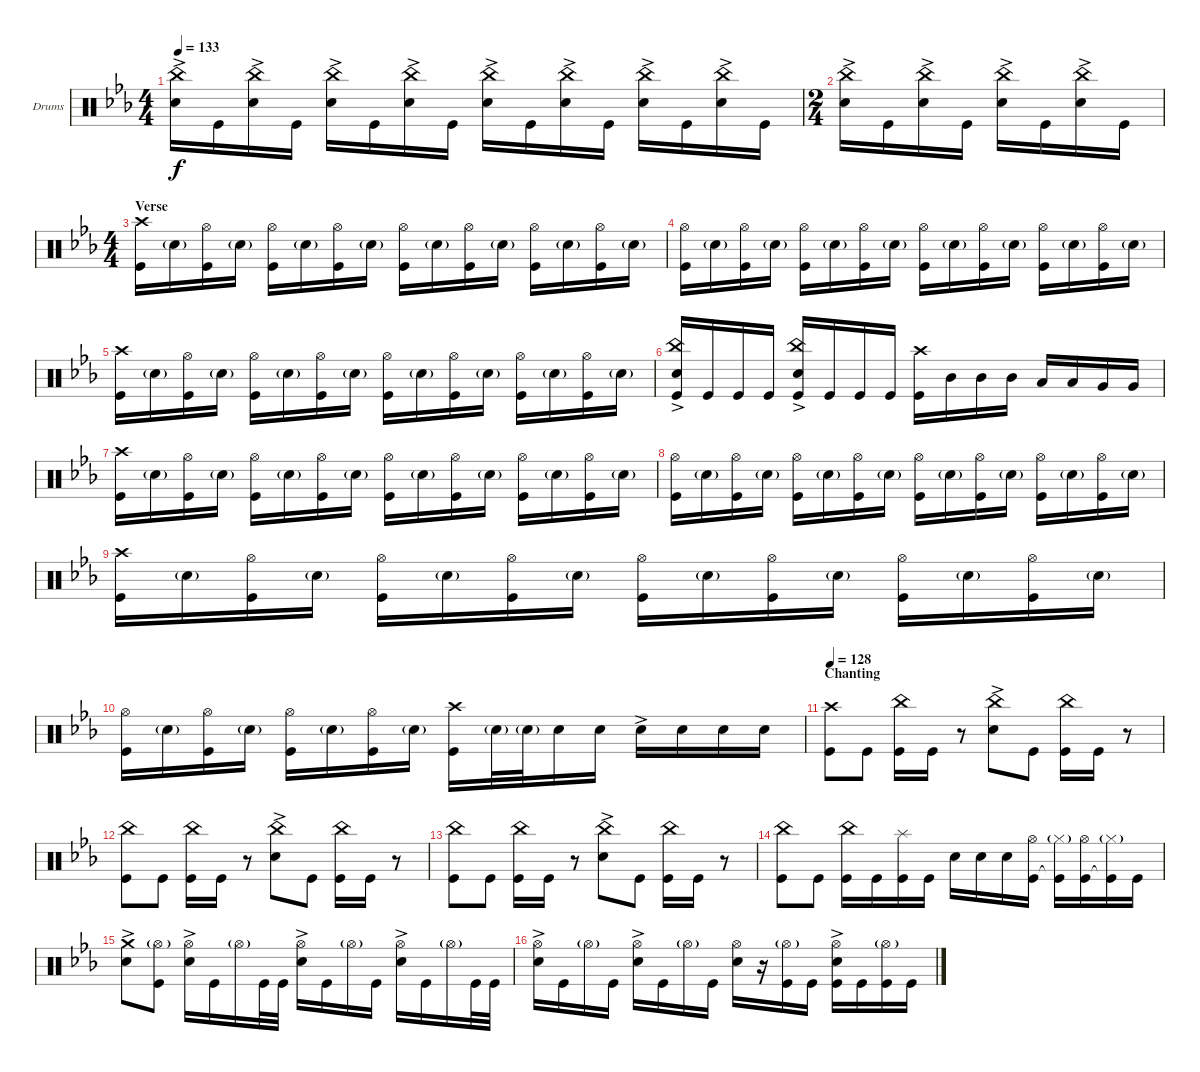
\bracketExtendMode groupsimilarinstruments
\firstSystemTrackNameOrientation horizontal
\otherSystemsTrackNameOrientation horizontal
\track ("Drumkit" "Drums") {instrument percussion}
\staff {score}
\articulation defaults
\ts (4 4)
\tempo 133
\clef neutral
\ks cminor
("Snare (hit) 2"{ac} "China (hit)").16{dy f} "Kick (hit)".16 ("Snare (hit) 2"{ac} "China (hit)").16 "Kick (hit)".16 ("Snare (hit) 2"{ac} "China (hit)").16 "Kick (hit)".16 ("Snare (hit) 2"{ac} "China (hit)").16 "Kick (hit)".16 ("Snare (hit) 2"{ac} "China (hit)").16 "Kick (hit)".16 ("Snare (hit) 2"{ac} "China (hit)").16 "Kick (hit)".16 ("Snare (hit) 2"{ac} "China (hit)").16 "Kick (hit)".16 ("Snare (hit) 2"{ac} "China (hit)").16 "Kick (hit)".16 |
\ts (2 4)
("Snare (hit) 2"{ac} "China (hit)").16 "Kick (hit)".16 ("Snare (hit) 2"{ac} "China (hit)").16 "Kick (hit)".16 ("Snare (hit) 2"{ac} "China (hit)").16 "Kick (hit)".16 ("Snare (hit) 2"{ac} "China (hit)").16 "Kick (hit)".16 |
\ts (4 4)
\section ("" "Verse")
("Kick (hit)" "Crash high (hit)").16 "Snare (hit) 2"{g}.16 ("Kick (hit)" "Hi-Hat (open)").16 "Snare (hit) 2"{g}.16 ("Kick (hit)" "Hi-Hat (open)").16 "Snare (hit) 2"{g}.16 ("Kick (hit)" "Hi-Hat (open)").16 "Snare (hit) 2"{g}.16 ("Kick (hit)" "Hi-Hat (open)").16 "Snare (hit) 2"{g}.16 ("Kick (hit)" "Hi-Hat (open)").16 "Snare (hit) 2"{g}.16 ("Kick (hit)" "Hi-Hat (open)").16 "Snare (hit) 2"{g}.16 ("Kick (hit)" "Hi-Hat (open)").16 "Snare (hit) 2"{g}.16 |
("Kick (hit)" "Hi-Hat (open)").16 "Snare (hit) 2"{g}.16 ("Kick (hit)" "Hi-Hat (open)").16 "Snare (hit) 2"{g}.16 ("Kick (hit)" "Hi-Hat (open)").16 "Snare (hit) 2"{g}.16 ("Kick (hit)" "Hi-Hat (open)").16 "Snare (hit) 2"{g}.16 ("Kick (hit)" "Hi-Hat (open)").16 "Snare (hit) 2"{g}.16 ("Kick (hit)" "Hi-Hat (open)").16 "Snare (hit) 2"{g}.16 ("Kick (hit)" "Hi-Hat (open)").16 "Snare (hit) 2"{g}.16 ("Kick (hit)" "Hi-Hat (open)").16 "Snare (hit) 2"{g}.16 |
("Kick (hit)" "Crash high (hit)").16 "Snare (hit) 2"{g}.16 ("Kick (hit)" "Hi-Hat (open)").16 "Snare (hit) 2"{g}.16 ("Kick (hit)" "Hi-Hat (open)").16 "Snare (hit) 2"{g}.16 ("Kick (hit)" "Hi-Hat (open)").16 "Snare (hit) 2"{g}.16 ("Kick (hit)" "Hi-Hat (open)").16 "Snare (hit) 2"{g}.16 ("Kick (hit)" "Hi-Hat (open)").16 "Snare (hit) 2"{g}.16 ("Kick (hit)" "Hi-Hat (open)").16 "Snare (hit) 2"{g}.16 ("Kick (hit)" "Hi-Hat (open)").16 "Snare (hit) 2"{g}.16 |
("Kick (hit)" "Snare (hit) 2"{ac} "China (hit)").16 "Kick (hit)".16 "Kick (hit)".16 "Kick (hit)".16 ("Kick (hit)" "Snare (hit) 2"{ac} "China (hit)").16 "Kick (hit)".16 "Kick (hit)".16 "Kick (hit)".16 ("Kick (hit)" "Crash high (hit)").16 "Mid Tom (hit)".16 "Mid Tom (hit)".16 "Mid Tom (hit)".16 "Low Tom (hit)".16 "Low Tom (hit)".16 "Very Low Tom (hit)".16 "Very Low Tom (hit)".16 |
("Kick (hit)" "Crash high (hit)").16 "Snare (hit) 2"{g}.16 ("Kick (hit)" "Hi-Hat (open)").16 "Snare (hit) 2"{g}.16 ("Kick (hit)" "Hi-Hat (open)").16 "Snare (hit) 2"{g}.16 ("Kick (hit)" "Hi-Hat (open)").16 "Snare (hit) 2"{g}.16 ("Kick (hit)" "Hi-Hat (open)").16 "Snare (hit) 2"{g}.16 ("Kick (hit)" "Hi-Hat (open)").16 "Snare (hit) 2"{g}.16 ("Kick (hit)" "Hi-Hat (open)").16 "Snare (hit) 2"{g}.16 ("Kick (hit)" "Hi-Hat (open)").16 "Snare (hit) 2"{g}.16 |
("Kick (hit)" "Hi-Hat (open)").16 "Snare (hit) 2"{g}.16 ("Kick (hit)" "Hi-Hat (open)").16 "Snare (hit) 2"{g}.16 ("Kick (hit)" "Hi-Hat (open)").16 "Snare (hit) 2"{g}.16 ("Kick (hit)" "Hi-Hat (open)").16 "Snare (hit) 2"{g}.16 ("Kick (hit)" "Hi-Hat (open)").16 "Snare (hit) 2"{g}.16 ("Kick (hit)" "Hi-Hat (open)").16 "Snare (hit) 2"{g}.16 ("Kick (hit)" "Hi-Hat (open)").16 "Snare (hit) 2"{g}.16 ("Kick (hit)" "Hi-Hat (open)").16 "Snare (hit) 2"{g}.16 |
("Kick (hit)" "Crash high (hit)").16 "Snare (hit) 2"{g}.16 ("Kick (hit)" "Hi-Hat (open)").16 "Snare (hit) 2"{g}.16 ("Kick (hit)" "Hi-Hat (open)").16 "Snare (hit) 2"{g}.16 ("Kick (hit)" "Hi-Hat (open)").16 "Snare (hit) 2"{g}.16 ("Kick (hit)" "Hi-Hat (open)").16 "Snare (hit) 2"{g}.16 ("Kick (hit)" "Hi-Hat (open)").16 "Snare (hit) 2"{g}.16 ("Kick (hit)" "Hi-Hat (open)").16 "Snare (hit) 2"{g}.16 ("Kick (hit)" "Hi-Hat (open)").16 "Snare (hit) 2"{g}.16 |
("Kick (hit)" "Hi-Hat (open)").16 "Snare (hit) 2"{g}.16 ("Kick (hit)" "Hi-Hat (open)").16 "Snare (hit) 2"{g}.16 ("Kick (hit)" "Hi-Hat (open)").16 "Snare (hit) 2"{g}.16 ("Kick (hit)" "Hi-Hat (open)").16 "Snare (hit) 2"{g}.16 ("Kick (hit)" "Crash high (hit)").16 "Snare (hit) 2"{g}.32 "Snare (hit) 2"{g}.32 "Snare (hit) 2".16 "Snare (hit) 2".16 "Snare (hit) 2"{ac}.16 "Snare (hit) 2".16 "Snare (hit) 2".16 "Snare (hit) 2".16 |
\section ("" "Chanting")
\tempo 128
("Kick (hit)" "Crash high (hit)").8 "Kick (hit)".8 ("Kick (hit)" "China (hit)").16 "Kick (hit)".16 r.8 ("Snare (hit) 2"{ac} "China (hit)").8 "Kick (hit)".8 ("Kick (hit)" "China (hit)").16 "Kick (hit)".16 r.8 |
("Kick (hit)" "China (hit)").8 "Kick (hit)".8 ("Kick (hit)" "China (hit)").16 "Kick (hit)".16 r.8 ("Snare (hit) 2"{ac} "China (hit)").8 "Kick (hit)".8 ("Kick (hit)" "China (hit)").16 "Kick (hit)".16 r.8 |
("Kick (hit)" "China (hit)").8 "Kick (hit)".8 ("Kick (hit)" "China (hit)").16 "Kick (hit)".16 r.8 ("Snare (hit) 2"{ac} "China (hit)").8 "Kick (hit)".8 ("Kick (hit)" "China (hit)").16 "Kick (hit)".16 r.8 |
("Kick (hit)" "China (hit)").8 "Kick (hit)".8 ("Kick (hit)" "China (hit)").16 "Kick (hit)".16 ("Kick (hit)" "Splash (hit)").16 "Kick (hit)".16 "Snare (hit) 2".16 "Snare (hit) 2".16 "Snare (hit) 2".16 ("Kick (hit)" "Hi-Hat (open)").16 ("Kick (hit)"{t} "Hi-Hat (closed)"{g}).16 ("Kick (hit)" "Hi-Hat (open)").16 ("Kick (hit)"{t} "Hi-Hat (closed)"{g}).16 "Kick (hit)".16 |
("Snare (hit) 2"{ac} "Crash medium (hit)").8 ("Kick (hit)" "Hi-Hat (open)"{g}).8 ("Snare (hit) 2"{ac} "Hi-Hat (open)").16 "Kick (hit)".16 "Hi-Hat (open)"{g}.16 "Kick (hit)".32 "Kick (hit)".32 ("Snare (hit) 2"{ac} "Hi-Hat (open)").16 "Kick (hit)".16 "Hi-Hat (open)"{g}.16 "Kick (hit)".16 ("Snare (hit) 2"{ac} "Hi-Hat (open)").16 "Kick (hit)".16 "Hi-Hat (open)"{g}.16 "Kick (hit)".32 "Kick (hit)".32 |
("Snare (hit) 2"{ac} "Hi-Hat (open)").16 "Kick (hit)".16 "Hi-Hat (open)"{g}.16 "Kick (hit)".16 ("Snare (hit) 2"{ac} "Hi-Hat (open)").16 "Kick (hit)".16 "Hi-Hat (open)"{g}.16 "Kick (hit)".16 ("Snare (hit) 2" "Hi-Hat (open)").16 r.16 ("Kick (hit)" "Hi-Hat (open)"{g}).16 "Kick (hit)".16 ("Kick (hit)" "Snare (hit) 2"{ac} "Hi-Hat (open)").16 "Kick (hit)".16 ("Kick (hit)" "Hi-Hat (open)"{g}).16 "Kick (hit)".16
